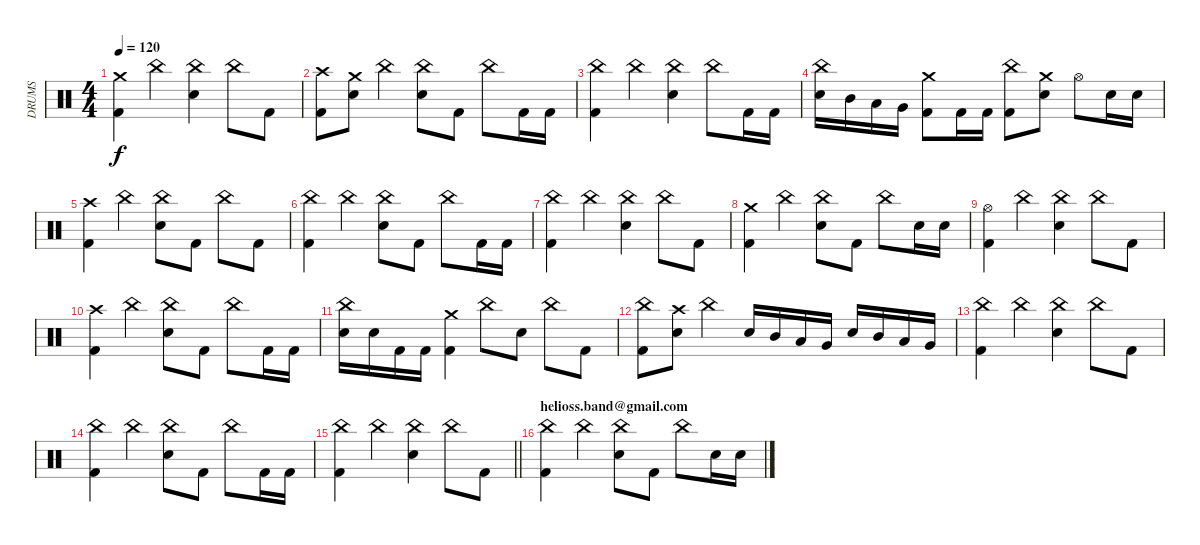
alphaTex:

\track ("DRUMS" "DRUMS") {instrument percussion}
\staff {score}
\articulation defaults
\ts (4 4)
\tempo 120
\clef neutral
\ks c
("Crash medium (hit)" "Kick (hit) 2").4{dy f} "China (hit)".4 ("China (hit)" "Electric Snare (hit)").4 "China (hit)".8 "Kick (hit) 2".8 |
("Crash high (hit)" "Kick (hit) 2").8 ("Crash medium (hit)" "Electric Snare (hit)").8 "China (hit)".4 ("China (hit)" "Electric Snare (hit)").8 "Kick (hit) 2".8 "China (hit)".8 "Kick (hit) 2".16 "Kick (hit) 2".16 |
("China (hit)" "Kick (hit) 2").4 "China (hit)".4 ("China (hit)" "Electric Snare (hit)").4 "China (hit)".8 "Kick (hit) 2".16 "Kick (hit) 2".16 |
("China (hit)" "Electric Snare (hit)").16 "Mid Tom (hit)".16 "Low Tom (hit)".16 "Very Low Tom (hit)".16 ("Crash medium (hit)" "Kick (hit) 2").8 "Kick (hit) 2".16 "Kick (hit) 2".16 ("China (hit)" "Kick (hit) 2").8 ("Crash medium (hit)" "Electric Snare (hit)").8 "Hi-Hat (open)".8 "Electric Snare (hit)".16 "Electric Snare (hit)".16 |
("Crash high (hit)" "Kick (hit) 2").4 "China (hit)".4 ("China (hit)" "Electric Snare (hit)").8 "Kick (hit) 2".8 "China (hit)".8 "Kick (hit) 2".8 |
("China (hit)" "Kick (hit) 2").4 "China (hit)".4 ("China (hit)" "Electric Snare (hit)").8 "Kick (hit) 2".8 "China (hit)".8 "Kick (hit) 2".16 "Kick (hit) 2".16 |
("China (hit)" "Kick (hit) 2").4 "China (hit)".4 ("China (hit)" "Electric Snare (hit)").4 "China (hit)".8 "Kick (hit) 2".8 |
("Crash medium (hit)" "Kick (hit) 2").4 "China (hit)".4 ("China (hit)" "Electric Snare (hit)").8 "Kick (hit) 2".8 "China (hit)".8 "Electric Snare (hit)".16 "Electric Snare (hit)".16 |
("Hi-Hat (open)" "Kick (hit) 2").4 "China (hit)".4 ("China (hit)" "Electric Snare (hit)").4 "China (hit)".8 "Kick (hit) 2".8 |
("Crash high (hit)" "Kick (hit) 2").4 "China (hit)".4 ("China (hit)" "Electric Snare (hit)").8 "Kick (hit) 2".8 "China (hit)".8 "Kick (hit) 2".16 "Kick (hit) 2".16 |
("China (hit)" "Electric Snare (hit)").16 "Electric Snare (hit)".16 "Kick (hit) 2".16 "Kick (hit) 2".16 ("Crash medium (hit)" "Kick (hit) 2").4 "China (hit)".8 "Electric Snare (hit)".8 "China (hit)".8 "Kick (hit) 2".8 |
("China (hit)" "Kick (hit) 2").8 ("Crash high (hit)" "Electric Snare (hit)").8 "China (hit)".4 "Electric Snare (hit)".16 "Mid Tom (hit)".16 "Low Tom (hit)".16 "Very Low Tom (hit)".16 "Electric Snare (hit)".16 "Mid Tom (hit)".16 "Low Tom (hit)".16 "Very Low Tom (hit)".16 |
("China (hit)" "Kick (hit) 2").4 "China (hit)".4 ("China (hit)" "Electric Snare (hit)").4 "China (hit)".8 "Kick (hit) 2".8 |
("China (hit)" "Kick (hit) 2").4 "China (hit)".4 ("China (hit)" "Electric Snare (hit)").8 "Kick (hit) 2".8 "China (hit)".8 "Kick (hit) 2".16 "Kick (hit) 2".16 |
\barLineRight lightlight
("China (hit)" "Kick (hit) 2").4 "China (hit)".4 ("China (hit)" "Electric Snare (hit)").4 "China (hit)".8 "Kick (hit) 2".8 |
\section ("" "helioss.band@gmail.com")
("China (hit)" "Kick (hit) 2").4 "China (hit)".4 ("China (hit)" "Electric Snare (hit)").8 "Kick (hit) 2".8 "China (hit)".8 "Electric Snare (hit)".16 "Electric Snare (hit)".16
